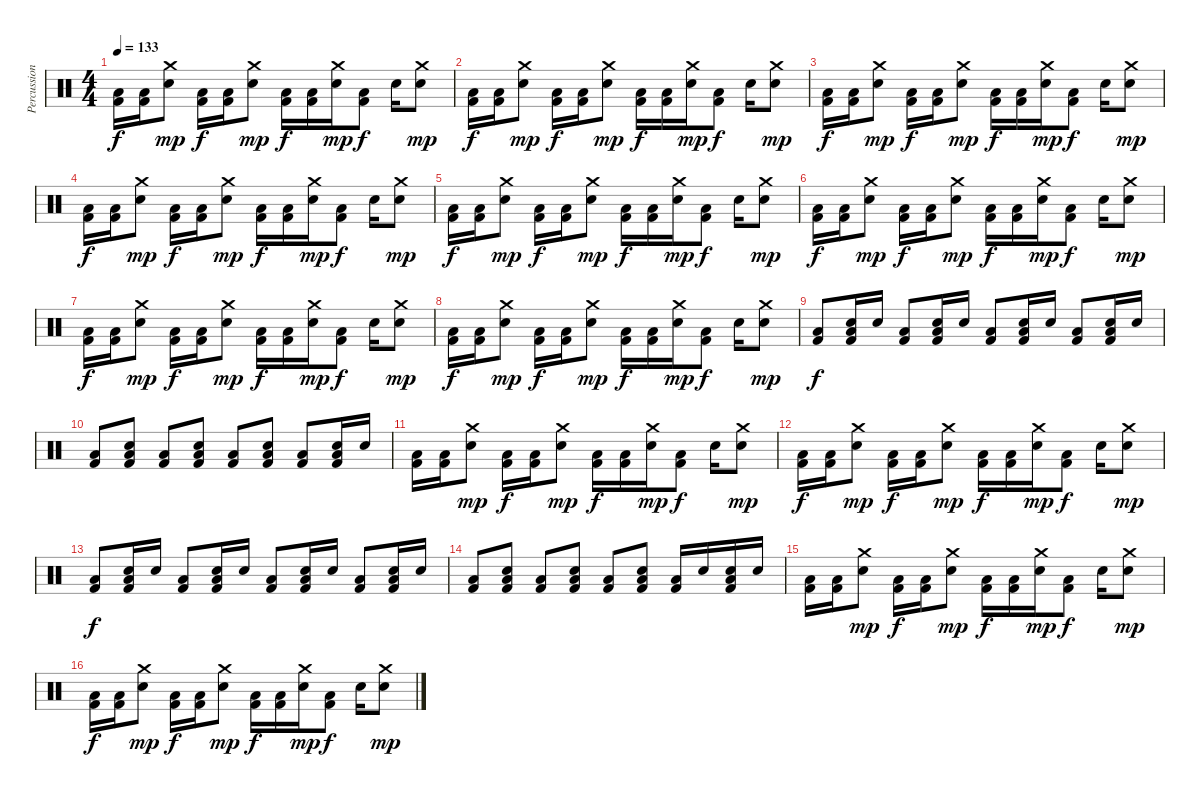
\track ("Percussions" "Percussion") {instrument percussion}
\staff {score}
\articulation defaults
\ts (4 4)
\tempo 133
\clef neutral
\ks c
("Kick (hit) 2" "Low Floor Tom (hit)").16{dy f} ("Kick (hit) 2" "Low Floor Tom (hit)").16 ("Electric Snare (hit)" "Crash medium (hit)").8{dy mp} ("Kick (hit) 2" "Low Floor Tom (hit)").16{dy f} ("Kick (hit) 2" "Low Floor Tom (hit)").16 ("Electric Snare (hit)" "Crash medium (hit)").8{dy mp} ("Kick (hit) 2" "Low Floor Tom (hit)").16{dy f} ("Kick (hit) 2" "Low Floor Tom (hit)").16 ("Electric Snare (hit)" "Crash medium (hit)").16{dy mp} ("Kick (hit) 2" "Low Floor Tom (hit)").8{dy f} "Electric Snare (hit)".16 ("Electric Snare (hit)" "Crash medium (hit)").8{dy mp} |
("Kick (hit) 2" "Low Floor Tom (hit)").16{dy f} ("Kick (hit) 2" "Low Floor Tom (hit)").16 ("Electric Snare (hit)" "Crash medium (hit)").8{dy mp} ("Kick (hit) 2" "Low Floor Tom (hit)").16{dy f} ("Kick (hit) 2" "Low Floor Tom (hit)").16 ("Electric Snare (hit)" "Crash medium (hit)").8{dy mp} ("Kick (hit) 2" "Low Floor Tom (hit)").16{dy f} ("Kick (hit) 2" "Low Floor Tom (hit)").16 ("Electric Snare (hit)" "Crash medium (hit)").16{dy mp} ("Kick (hit) 2" "Low Floor Tom (hit)").8{dy f} "Electric Snare (hit)".16 ("Electric Snare (hit)" "Crash medium (hit)").8{dy mp} |
("Kick (hit) 2" "Low Floor Tom (hit)").16{dy f} ("Kick (hit) 2" "Low Floor Tom (hit)").16 ("Electric Snare (hit)" "Crash medium (hit)").8{dy mp} ("Kick (hit) 2" "Low Floor Tom (hit)").16{dy f} ("Kick (hit) 2" "Low Floor Tom (hit)").16 ("Electric Snare (hit)" "Crash medium (hit)").8{dy mp} ("Kick (hit) 2" "Low Floor Tom (hit)").16{dy f} ("Kick (hit) 2" "Low Floor Tom (hit)").16 ("Electric Snare (hit)" "Crash medium (hit)").16{dy mp} ("Kick (hit) 2" "Low Floor Tom (hit)").8{dy f} "Electric Snare (hit)".16 ("Electric Snare (hit)" "Crash medium (hit)").8{dy mp} |
("Kick (hit) 2" "Low Floor Tom (hit)").16{dy f} ("Kick (hit) 2" "Low Floor Tom (hit)").16 ("Electric Snare (hit)" "Crash medium (hit)").8{dy mp} ("Kick (hit) 2" "Low Floor Tom (hit)").16{dy f} ("Kick (hit) 2" "Low Floor Tom (hit)").16 ("Electric Snare (hit)" "Crash medium (hit)").8{dy mp} ("Kick (hit) 2" "Low Floor Tom (hit)").16{dy f} ("Kick (hit) 2" "Low Floor Tom (hit)").16 ("Electric Snare (hit)" "Crash medium (hit)").16{dy mp} ("Kick (hit) 2" "Low Floor Tom (hit)").8{dy f} "Electric Snare (hit)".16 ("Electric Snare (hit)" "Crash medium (hit)").8{dy mp} |
("Kick (hit) 2" "Low Floor Tom (hit)").16{dy f} ("Kick (hit) 2" "Low Floor Tom (hit)").16 ("Electric Snare (hit)" "Crash medium (hit)").8{dy mp} ("Kick (hit) 2" "Low Floor Tom (hit)").16{dy f} ("Kick (hit) 2" "Low Floor Tom (hit)").16 ("Electric Snare (hit)" "Crash medium (hit)").8{dy mp} ("Kick (hit) 2" "Low Floor Tom (hit)").16{dy f} ("Kick (hit) 2" "Low Floor Tom (hit)").16 ("Electric Snare (hit)" "Crash medium (hit)").16{dy mp} ("Kick (hit) 2" "Low Floor Tom (hit)").8{dy f} "Electric Snare (hit)".16 ("Electric Snare (hit)" "Crash medium (hit)").8{dy mp} |
("Kick (hit) 2" "Low Floor Tom (hit)").16{dy f} ("Kick (hit) 2" "Low Floor Tom (hit)").16 ("Electric Snare (hit)" "Crash medium (hit)").8{dy mp} ("Kick (hit) 2" "Low Floor Tom (hit)").16{dy f} ("Kick (hit) 2" "Low Floor Tom (hit)").16 ("Electric Snare (hit)" "Crash medium (hit)").8{dy mp} ("Kick (hit) 2" "Low Floor Tom (hit)").16{dy f} ("Kick (hit) 2" "Low Floor Tom (hit)").16 ("Electric Snare (hit)" "Crash medium (hit)").16{dy mp} ("Kick (hit) 2" "Low Floor Tom (hit)").8{dy f} "Electric Snare (hit)".16 ("Electric Snare (hit)" "Crash medium (hit)").8{dy mp} |
("Kick (hit) 2" "Low Floor Tom (hit)").16{dy f} ("Kick (hit) 2" "Low Floor Tom (hit)").16 ("Electric Snare (hit)" "Crash medium (hit)").8{dy mp} ("Kick (hit) 2" "Low Floor Tom (hit)").16{dy f} ("Kick (hit) 2" "Low Floor Tom (hit)").16 ("Electric Snare (hit)" "Crash medium (hit)").8{dy mp} ("Kick (hit) 2" "Low Floor Tom (hit)").16{dy f} ("Kick (hit) 2" "Low Floor Tom (hit)").16 ("Electric Snare (hit)" "Crash medium (hit)").16{dy mp} ("Kick (hit) 2" "Low Floor Tom (hit)").8{dy f} "Electric Snare (hit)".16 ("Electric Snare (hit)" "Crash medium (hit)").8{dy mp} |
("Kick (hit) 2" "Low Floor Tom (hit)").16{dy f} ("Kick (hit) 2" "Low Floor Tom (hit)").16 ("Electric Snare (hit)" "Crash medium (hit)").8{dy mp} ("Kick (hit) 2" "Low Floor Tom (hit)").16{dy f} ("Kick (hit) 2" "Low Floor Tom (hit)").16 ("Electric Snare (hit)" "Crash medium (hit)").8{dy mp} ("Kick (hit) 2" "Low Floor Tom (hit)").16{dy f} ("Kick (hit) 2" "Low Floor Tom (hit)").16 ("Electric Snare (hit)" "Crash medium (hit)").16{dy mp} ("Kick (hit) 2" "Low Floor Tom (hit)").8{dy f} "Electric Snare (hit)".16 ("Electric Snare (hit)" "Crash medium (hit)").8{dy mp} |
("Kick (hit) 2" "Low Floor Tom (hit)").8{dy f} ("Kick (hit) 2" "Low Floor Tom (hit)" "Electric Snare (hit)").16 "Electric Snare (hit)".16 ("Kick (hit) 2" "Low Floor Tom (hit)").8 ("Kick (hit) 2" "Low Floor Tom (hit)" "Electric Snare (hit)").16 "Electric Snare (hit)".16 ("Kick (hit) 2" "Low Floor Tom (hit)").8 ("Kick (hit) 2" "Low Floor Tom (hit)" "Electric Snare (hit)").16 "Electric Snare (hit)".16 ("Kick (hit) 2" "Low Floor Tom (hit)").8 ("Kick (hit) 2" "Low Floor Tom (hit)" "Electric Snare (hit)").16 "Electric Snare (hit)".16 |
("Kick (hit) 2" "Low Floor Tom (hit)").8 ("Kick (hit) 2" "Low Floor Tom (hit)" "Electric Snare (hit)").8 ("Kick (hit) 2" "Low Floor Tom (hit)").8 ("Kick (hit) 2" "Low Floor Tom (hit)" "Electric Snare (hit)").8 ("Kick (hit) 2" "Low Floor Tom (hit)").8 ("Kick (hit) 2" "Low Floor Tom (hit)" "Electric Snare (hit)").8 ("Kick (hit) 2" "Low Floor Tom (hit)").8 ("Kick (hit) 2" "Low Floor Tom (hit)" "Electric Snare (hit)").16 "Electric Snare (hit)".16 |
("Kick (hit) 2" "Low Floor Tom (hit)").16 ("Kick (hit) 2" "Low Floor Tom (hit)").16 ("Electric Snare (hit)" "Crash medium (hit)").8{dy mp} ("Kick (hit) 2" "Low Floor Tom (hit)").16{dy f} ("Kick (hit) 2" "Low Floor Tom (hit)").16 ("Electric Snare (hit)" "Crash medium (hit)").8{dy mp} ("Kick (hit) 2" "Low Floor Tom (hit)").16{dy f} ("Kick (hit) 2" "Low Floor Tom (hit)").16 ("Electric Snare (hit)" "Crash medium (hit)").16{dy mp} ("Kick (hit) 2" "Low Floor Tom (hit)").8{dy f} "Electric Snare (hit)".16 ("Electric Snare (hit)" "Crash medium (hit)").8{dy mp} |
("Kick (hit) 2" "Low Floor Tom (hit)").16{dy f} ("Kick (hit) 2" "Low Floor Tom (hit)").16 ("Electric Snare (hit)" "Crash medium (hit)").8{dy mp} ("Kick (hit) 2" "Low Floor Tom (hit)").16{dy f} ("Kick (hit) 2" "Low Floor Tom (hit)").16 ("Electric Snare (hit)" "Crash medium (hit)").8{dy mp} ("Kick (hit) 2" "Low Floor Tom (hit)").16{dy f} ("Kick (hit) 2" "Low Floor Tom (hit)").16 ("Electric Snare (hit)" "Crash medium (hit)").16{dy mp} ("Kick (hit) 2" "Low Floor Tom (hit)").8{dy f} "Electric Snare (hit)".16 ("Electric Snare (hit)" "Crash medium (hit)").8{dy mp} |
("Kick (hit) 2" "Low Floor Tom (hit)").8{dy f} ("Kick (hit) 2" "Low Floor Tom (hit)" "Electric Snare (hit)").16 "Electric Snare (hit)".16 ("Kick (hit) 2" "Low Floor Tom (hit)").8 ("Kick (hit) 2" "Low Floor Tom (hit)" "Electric Snare (hit)").16 "Electric Snare (hit)".16 ("Kick (hit) 2" "Low Floor Tom (hit)").8 ("Kick (hit) 2" "Low Floor Tom (hit)" "Electric Snare (hit)").16 "Electric Snare (hit)".16 ("Kick (hit) 2" "Low Floor Tom (hit)").8 ("Kick (hit) 2" "Low Floor Tom (hit)" "Electric Snare (hit)").16 "Electric Snare (hit)".16 |
("Kick (hit) 2" "Low Floor Tom (hit)").8 ("Kick (hit) 2" "Low Floor Tom (hit)" "Electric Snare (hit)").8 ("Kick (hit) 2" "Low Floor Tom (hit)").8 ("Kick (hit) 2" "Low Floor Tom (hit)" "Electric Snare (hit)").8 ("Kick (hit) 2" "Low Floor Tom (hit)").8 ("Kick (hit) 2" "Low Floor Tom (hit)" "Electric Snare (hit)").8 ("Kick (hit) 2" "Low Floor Tom (hit)").16 "Electric Snare (hit)".16 ("Kick (hit) 2" "Low Floor Tom (hit)" "Electric Snare (hit)").16 "Electric Snare (hit)".16 |
("Kick (hit) 2" "Low Floor Tom (hit)").16 ("Kick (hit) 2" "Low Floor Tom (hit)").16 ("Electric Snare (hit)" "Crash medium (hit)").8{dy mp} ("Kick (hit) 2" "Low Floor Tom (hit)").16{dy f} ("Kick (hit) 2" "Low Floor Tom (hit)").16 ("Electric Snare (hit)" "Crash medium (hit)").8{dy mp} ("Kick (hit) 2" "Low Floor Tom (hit)").16{dy f} ("Kick (hit) 2" "Low Floor Tom (hit)").16 ("Electric Snare (hit)" "Crash medium (hit)").16{dy mp} ("Kick (hit) 2" "Low Floor Tom (hit)").8{dy f} "Electric Snare (hit)".16 ("Electric Snare (hit)" "Crash medium (hit)").8{dy mp} |
("Kick (hit) 2" "Low Floor Tom (hit)").16{dy f} ("Kick (hit) 2" "Low Floor Tom (hit)").16 ("Electric Snare (hit)" "Crash medium (hit)").8{dy mp} ("Kick (hit) 2" "Low Floor Tom (hit)").16{dy f} ("Kick (hit) 2" "Low Floor Tom (hit)").16 ("Electric Snare (hit)" "Crash medium (hit)").8{dy mp} ("Kick (hit) 2" "Low Floor Tom (hit)").16{dy f} ("Kick (hit) 2" "Low Floor Tom (hit)").16 ("Electric Snare (hit)" "Crash medium (hit)").16{dy mp} ("Kick (hit) 2" "Low Floor Tom (hit)").8{dy f} "Electric Snare (hit)".16 ("Electric Snare (hit)" "Crash medium (hit)").8{dy mp}
